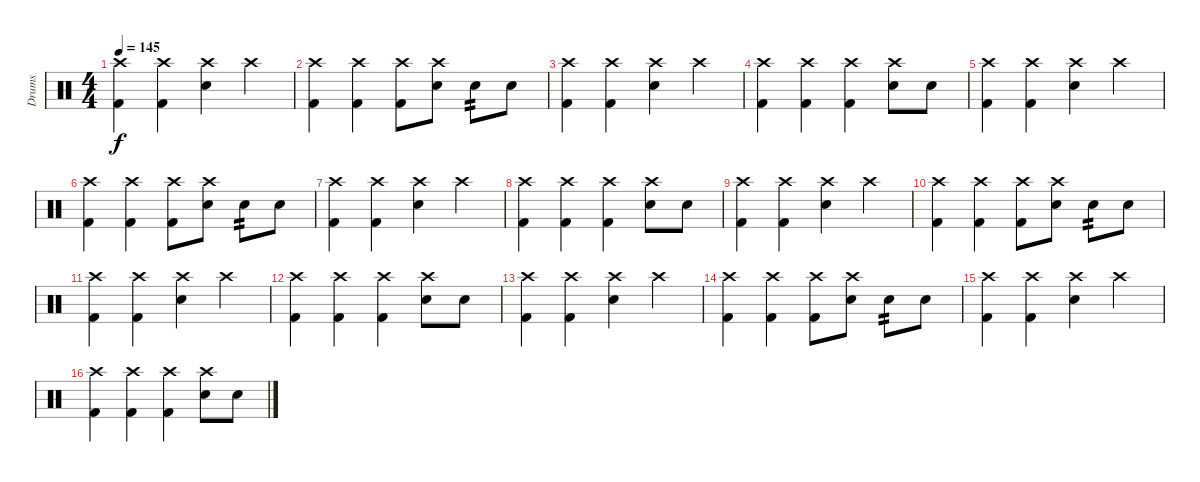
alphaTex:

\track ("Drums" "Drums") {instrument percussion}
\staff {score}
\articulation defaults
\ts (4 4)
\tempo 145
\clef neutral
\ks c
("Crash high (hit)" "Kick (hit) 2").4{dy f} ("Crash high (hit)" "Kick (hit) 2").4 ("Crash high (hit)" "Electric Snare (hit)").4 "Crash high (hit)".4 |
("Crash high (hit)" "Kick (hit) 2").4 ("Crash high (hit)" "Kick (hit) 2").4 ("Crash high (hit)" "Kick (hit) 2").8 ("Crash high (hit)" "Electric Snare (hit)").8 "Electric Snare (hit)".8{tp 2} "Electric Snare (hit)".8 |
("Crash high (hit)" "Kick (hit) 2").4 ("Crash high (hit)" "Kick (hit) 2").4 ("Crash high (hit)" "Electric Snare (hit)").4 "Crash high (hit)".4 |
("Crash high (hit)" "Kick (hit) 2").4 ("Crash high (hit)" "Kick (hit) 2").4 ("Crash high (hit)" "Kick (hit) 2").4 ("Crash high (hit)" "Electric Snare (hit)").8 "Electric Snare (hit)".8 |
("Crash high (hit)" "Kick (hit) 2").4 ("Crash high (hit)" "Kick (hit) 2").4 ("Crash high (hit)" "Electric Snare (hit)").4 "Crash high (hit)".4 |
("Crash high (hit)" "Kick (hit) 2").4 ("Crash high (hit)" "Kick (hit) 2").4 ("Crash high (hit)" "Kick (hit) 2").8 ("Crash high (hit)" "Electric Snare (hit)").8 "Electric Snare (hit)".8{tp 2} "Electric Snare (hit)".8 |
("Crash high (hit)" "Kick (hit) 2").4 ("Crash high (hit)" "Kick (hit) 2").4 ("Crash high (hit)" "Electric Snare (hit)").4 "Crash high (hit)".4 |
("Crash high (hit)" "Kick (hit) 2").4 ("Crash high (hit)" "Kick (hit) 2").4 ("Crash high (hit)" "Kick (hit) 2").4 ("Crash high (hit)" "Electric Snare (hit)").8 "Electric Snare (hit)".8 |
("Crash high (hit)" "Kick (hit) 2").4 ("Crash high (hit)" "Kick (hit) 2").4 ("Crash high (hit)" "Electric Snare (hit)").4 "Crash high (hit)".4 |
("Crash high (hit)" "Kick (hit) 2").4 ("Crash high (hit)" "Kick (hit) 2").4 ("Crash high (hit)" "Kick (hit) 2").8 ("Crash high (hit)" "Electric Snare (hit)").8 "Electric Snare (hit)".8{tp 2} "Electric Snare (hit)".8 |
("Crash high (hit)" "Kick (hit) 2").4 ("Crash high (hit)" "Kick (hit) 2").4 ("Crash high (hit)" "Electric Snare (hit)").4 "Crash high (hit)".4 |
("Crash high (hit)" "Kick (hit) 2").4 ("Crash high (hit)" "Kick (hit) 2").4 ("Crash high (hit)" "Kick (hit) 2").4 ("Crash high (hit)" "Electric Snare (hit)").8 "Electric Snare (hit)".8 |
("Crash high (hit)" "Kick (hit) 2").4 ("Crash high (hit)" "Kick (hit) 2").4 ("Crash high (hit)" "Electric Snare (hit)").4 "Crash high (hit)".4 |
("Crash high (hit)" "Kick (hit) 2").4 ("Crash high (hit)" "Kick (hit) 2").4 ("Crash high (hit)" "Kick (hit) 2").8 ("Crash high (hit)" "Electric Snare (hit)").8 "Electric Snare (hit)".8{tp 2} "Electric Snare (hit)".8 |
("Crash high (hit)" "Kick (hit) 2").4 ("Crash high (hit)" "Kick (hit) 2").4 ("Crash high (hit)" "Electric Snare (hit)").4 "Crash high (hit)".4 |
("Crash high (hit)" "Kick (hit) 2").4 ("Crash high (hit)" "Kick (hit) 2").4 ("Crash high (hit)" "Kick (hit) 2").4 ("Crash high (hit)" "Electric Snare (hit)").8 "Electric Snare (hit)".8
